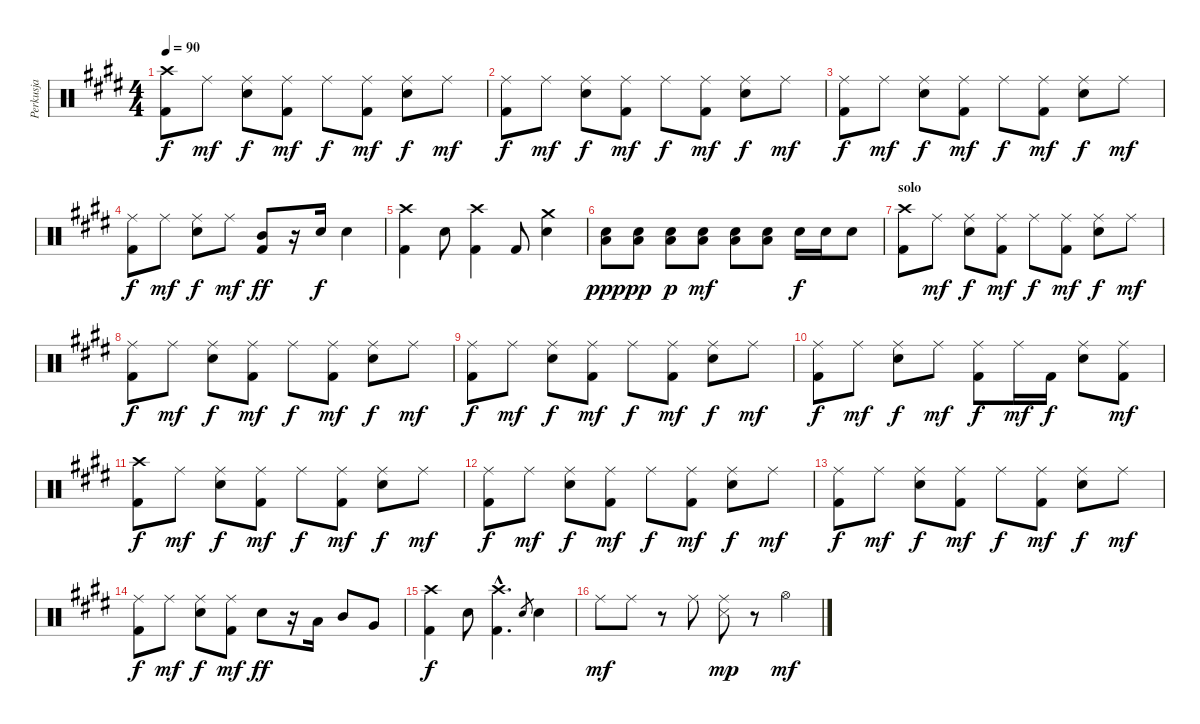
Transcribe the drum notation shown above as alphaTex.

\track ("Perkusja" "Perkusja") {instrument percussion}
\staff {score}
\articulation defaults
\ts (4 4)
\tempo 90
\clef neutral
\ks e
("Crash high (hit)" "Kick (hit) 2").8{dy f} "Ride (middle)".8{dy mf} ("Ride (middle)" "Snare (hit) 2").8{dy f} ("Ride (middle)" "Kick (hit) 2").8{dy mf} "Ride (middle)".8{dy f} ("Ride (middle)" "Kick (hit) 2").8{dy mf} ("Ride (middle)" "Snare (hit) 2").8{dy f} "Ride (middle)".8{dy mf} |
("Ride (middle)" "Kick (hit) 2").8{dy f} "Ride (middle)".8{dy mf} ("Ride (middle)" "Snare (hit) 2").8{dy f} ("Ride (middle)" "Kick (hit) 2").8{dy mf} "Ride (middle)".8{dy f} ("Ride (middle)" "Kick (hit) 2").8{dy mf} ("Ride (middle)" "Snare (hit) 2").8{dy f} "Ride (middle)".8{dy mf} |
("Ride (middle)" "Kick (hit) 2").8{dy f} "Ride (middle)".8{dy mf} ("Ride (middle)" "Snare (hit) 2").8{dy f} ("Ride (middle)" "Kick (hit) 2").8{dy mf} "Ride (middle)".8{dy f} ("Ride (middle)" "Kick (hit) 2").8{dy mf} ("Ride (middle)" "Snare (hit) 2").8{dy f} "Ride (middle)".8{dy mf} |
("Ride (middle)" "Kick (hit) 2").8{dy f} "Ride (middle)".8{dy mf} ("Ride (middle)" "Snare (hit) 2").8{dy f} "Ride (middle)".8{dy mf} ("Mid Tom (hit)" "Kick (hit) 2").8{dy ff} r.16 "Snare (hit) 2".16{dy f} "Snare (hit) 2".4 |
("Crash high (hit)" "Kick (hit) 2").4 "Snare (hit) 2".8 ("Crash high (hit)" "Kick (hit) 2").4 "Kick (hit) 2".8 ("Crash medium (hit)" "Snare (hit) 2").4 |
("Snare (hit) 2" "Low Tom (hit)").8{dy ppp} ("Snare (hit) 2" "Low Tom (hit)").8{dy pp} ("Snare (hit) 2" "Low Tom (hit)").8{dy p} ("Snare (hit) 2" "Low Tom (hit)").8{dy mf} ("Snare (hit) 2" "Low Tom (hit)").8 ("Snare (hit) 2" "Low Tom (hit)").8 "Snare (hit) 2".16{dy f} "Snare (hit) 2".16 "Snare (hit) 2".8 |
\section ("" "solo")
("Crash high (hit)" "Kick (hit) 2").8 "Ride (middle)".8{dy mf} ("Ride (middle)" "Snare (hit) 2").8{dy f} ("Ride (middle)" "Kick (hit) 2").8{dy mf} "Ride (middle)".8{dy f} ("Ride (middle)" "Kick (hit) 2").8{dy mf} ("Ride (middle)" "Snare (hit) 2").8{dy f} "Ride (middle)".8{dy mf} |
("Ride (middle)" "Kick (hit) 2").8{dy f} "Ride (middle)".8{dy mf} ("Ride (middle)" "Snare (hit) 2").8{dy f} ("Ride (middle)" "Kick (hit) 2").8{dy mf} "Ride (middle)".8{dy f} ("Ride (middle)" "Kick (hit) 2").8{dy mf} ("Ride (middle)" "Snare (hit) 2").8{dy f} "Ride (middle)".8{dy mf} |
("Ride (middle)" "Kick (hit) 2").8{dy f} "Ride (middle)".8{dy mf} ("Ride (middle)" "Snare (hit) 2").8{dy f} ("Ride (middle)" "Kick (hit) 2").8{dy mf} "Ride (middle)".8{dy f} ("Ride (middle)" "Kick (hit) 2").8{dy mf} ("Ride (middle)" "Snare (hit) 2").8{dy f} "Ride (middle)".8{dy mf} |
("Ride (middle)" "Kick (hit) 2").8{dy f} "Ride (middle)".8{dy mf} ("Ride (middle)" "Snare (hit) 2").8{dy f} "Ride (middle)".8{dy mf} ("Ride (middle)" "Kick (hit) 2").8{dy f} "Ride (middle)".16{dy mf} "Kick (hit) 2".16{dy f} ("Ride (middle)" "Snare (hit) 2").8 ("Ride (middle)" "Kick (hit) 2").8{dy mf} |
("Crash high (hit)" "Kick (hit) 2").8{dy f} "Ride (middle)".8{dy mf} ("Ride (middle)" "Snare (hit) 2").8{dy f} ("Ride (middle)" "Kick (hit) 2").8{dy mf} "Ride (middle)".8{dy f} ("Ride (middle)" "Kick (hit) 2").8{dy mf} ("Ride (middle)" "Snare (hit) 2").8{dy f} "Ride (middle)".8{dy mf} |
("Ride (middle)" "Kick (hit) 2").8{dy f} "Ride (middle)".8{dy mf} ("Ride (middle)" "Snare (hit) 2").8{dy f} ("Ride (middle)" "Kick (hit) 2").8{dy mf} "Ride (middle)".8{dy f} ("Ride (middle)" "Kick (hit) 2").8{dy mf} ("Ride (middle)" "Snare (hit) 2").8{dy f} "Ride (middle)".8{dy mf} |
("Ride (middle)" "Kick (hit) 2").8{dy f} "Ride (middle)".8{dy mf} ("Ride (middle)" "Snare (hit) 2").8{dy f} ("Ride (middle)" "Kick (hit) 2").8{dy mf} "Ride (middle)".8{dy f} ("Ride (middle)" "Kick (hit) 2").8{dy mf} ("Ride (middle)" "Snare (hit) 2").8{dy f} "Ride (middle)".8{dy mf} |
("Ride (middle)" "Kick (hit) 2").8{dy f} "Ride (middle)".8{dy mf} ("Ride (middle)" "Snare (hit) 2").8{dy f} ("Ride (middle)" "Kick (hit) 2").8{dy mf} "Snare (hit) 2".8{dy ff} r.16 "Low Tom (hit)".16 "Mid Tom (hit)".8 "Very Low Tom (hit)".8 |
("Crash high (hit)" "Kick (hit) 2").4{dy f} "Snare (hit) 2".8 ("Crash high (hit)"{hac} "Kick (hit) 2"{hac}).4{d} "Snare (hit) 2".8{gr} "Snare (hit) 2".4 |
"Ride (middle)".8{dy mf} "Ride (middle)".8 r.8 "Ride (middle)".8 ("Ride (middle)" "Snare (side stick) 3").8{dy mp} r.8 "Hi-Hat (open)".4{dy mf}
